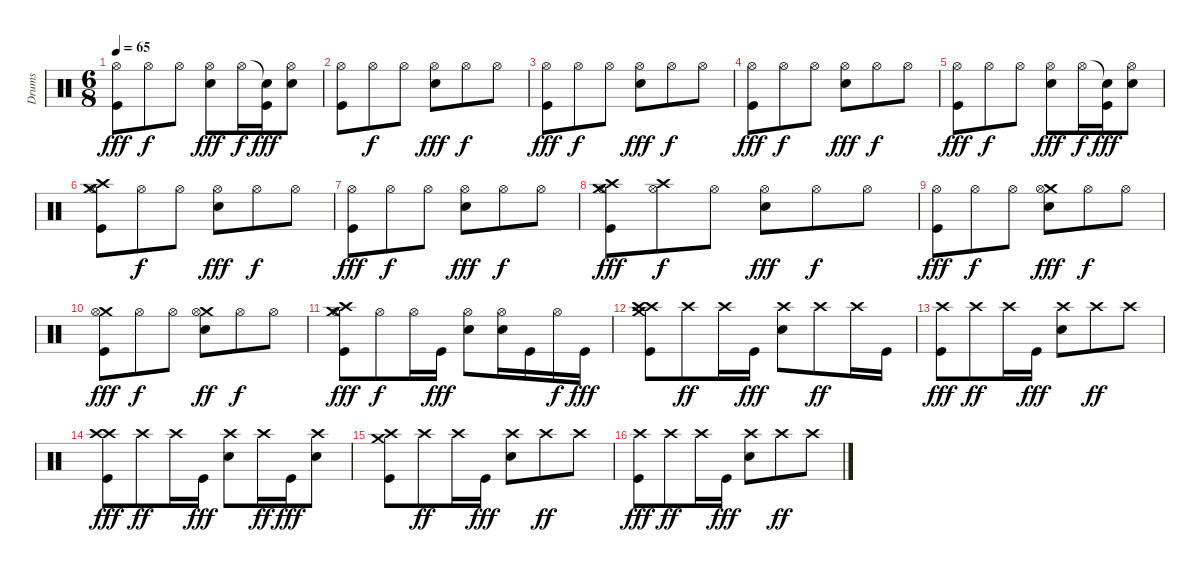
\track ("Drums" "Drums") {instrument percussion}
\staff {score}
\articulation defaults
\ts (6 8)
\tempo 65
\clef neutral
\ks c
("Hi-Hat (open)" "Kick (hit)").8{dy fff} "Hi-Hat (open)".8{dy f} "Hi-Hat (open)".8 ("Hi-Hat (open)" "Snare (hit) 2").8{dy fff} "Hi-Hat (open)".16{dy f} ("Snare (hit)"{t} "Kick (hit)").16{dy fff} ("Hi-Hat (open)" "Snare (hit) 2").8 |
("Hi-Hat (open)" "Kick (hit)").8 "Hi-Hat (open)".8{dy f} "Hi-Hat (open)".8 ("Hi-Hat (open)" "Snare (hit) 2").8{dy fff} "Hi-Hat (open)".8{dy f} "Hi-Hat (open)".8 |
("Hi-Hat (open)" "Kick (hit)").8{dy fff} "Hi-Hat (open)".8{dy f} "Hi-Hat (open)".8 ("Hi-Hat (open)" "Snare (hit) 2").8{dy fff} "Hi-Hat (open)".8{dy f} "Hi-Hat (open)".8 |
("Hi-Hat (open)" "Kick (hit)").8{dy fff} "Hi-Hat (open)".8{dy f} "Hi-Hat (open)".8 ("Hi-Hat (open)" "Snare (hit) 2").8{dy fff} "Hi-Hat (open)".8{dy f} "Hi-Hat (open)".8 |
("Hi-Hat (open)" "Kick (hit)").8{dy fff} "Hi-Hat (open)".8{dy f} "Hi-Hat (open)".8 ("Hi-Hat (open)" "Snare (hit) 2").8{dy fff} "Hi-Hat (open)".16{dy f} ("Snare (hit)"{t} "Kick (hit)").16{dy fff} ("Hi-Hat (open)" "Snare (hit) 2").8 |
("Crash medium (hit)" "Crash high (hit)" "Hi-Hat (open)" "Kick (hit)").8 "Hi-Hat (open)".8{dy f} "Hi-Hat (open)".8 ("Hi-Hat (open)" "Snare (hit) 2").8{dy fff} "Hi-Hat (open)".8{dy f} "Hi-Hat (open)".8 |
("Hi-Hat (open)" "Kick (hit)").8{dy fff} "Hi-Hat (open)".8{dy f} "Hi-Hat (open)".8 ("Hi-Hat (open)" "Snare (hit) 2").8{dy fff} "Hi-Hat (open)".8{dy f} "Hi-Hat (open)".8 |
("Crash medium (hit)" "Crash high (hit)" "Hi-Hat (open)" "Kick (hit)").8{dy fff} ("Crash high (hit)" "Hi-Hat (open)").8{dy f} "Hi-Hat (open)".8 ("Hi-Hat (open)" "Snare (hit) 2").8{dy fff} "Hi-Hat (open)".8{dy f} "Hi-Hat (open)".8 |
("Hi-Hat (open)" "Kick (hit)").8{dy fff} "Hi-Hat (open)".8{dy f} "Hi-Hat (open)".8 ("Crash medium (hit)" "Hi-Hat (open)" "Snare (hit) 2").8{dy fff} "Hi-Hat (open)".8{dy f} "Hi-Hat (open)".8 |
("Crash medium (hit)" "Hi-Hat (open)" "Kick (hit)").8{dy fff} "Hi-Hat (open)".8{dy f} "Hi-Hat (open)".8 ("Crash medium (hit)" "Hi-Hat (open)" "Snare (hit) 2").8{dy ff} "Hi-Hat (open)".8{dy f} "Hi-Hat (open)".8 |
("Crash medium (hit)" "Crash high (hit)" "Hi-Hat (open)" "Kick (hit)").8{dy fff} "Hi-Hat (open)".8{dy f} "Hi-Hat (open)".16 "Kick (hit)".16{dy fff} ("Hi-Hat (open)" "Snare (hit) 2").8 ("Hi-Hat (open)" "Snare (hit) 2").16 "Kick (hit)".16 "Hi-Hat (open)".16{dy f} "Kick (hit)".16{dy fff} |
("Crash medium (hit)" "Crash high (hit)" "Crash high (hit)" "Kick (hit)").8 "Crash high (hit)".8{dy ff} "Crash high (hit)".16 "Kick (hit)".16{dy fff} ("Crash high (hit)" "Snare (hit) 2").8 "Crash high (hit)".8{dy ff} "Crash high (hit)".16 "Kick (hit)".16 |
("Crash high (hit)" "Kick (hit)").8{dy fff} "Crash high (hit)".8{dy ff} "Crash high (hit)".16 "Kick (hit)".16{dy fff} ("Crash high (hit)" "Snare (hit) 2").8 "Crash high (hit)".8{dy ff} "Crash high (hit)".8 |
("Crash high (hit)" "Crash high (hit)" "Kick (hit)").8{dy fff} "Crash high (hit)".8{dy ff} "Crash high (hit)".16 "Kick (hit)".16{dy fff} ("Crash high (hit)" "Snare (hit) 2").8 "Crash high (hit)".16{dy ff} "Kick (hit)".16{dy fff} ("Crash high (hit)" "Snare (hit) 2").8 |
("Crash medium (hit)" "Crash high (hit)" "Kick (hit)").8 "Crash high (hit)".8{dy ff} "Crash high (hit)".16 "Kick (hit)".16{dy fff} ("Crash high (hit)" "Snare (hit) 2").8 "Crash high (hit)".8{dy ff} "Crash high (hit)".8 |
("Crash high (hit)" "Kick (hit)").8{dy fff} "Crash high (hit)".8{dy ff} "Crash high (hit)".16 "Kick (hit)".16{dy fff} ("Crash high (hit)" "Snare (hit) 2").8 "Crash high (hit)".8{dy ff} "Crash high (hit)".8
